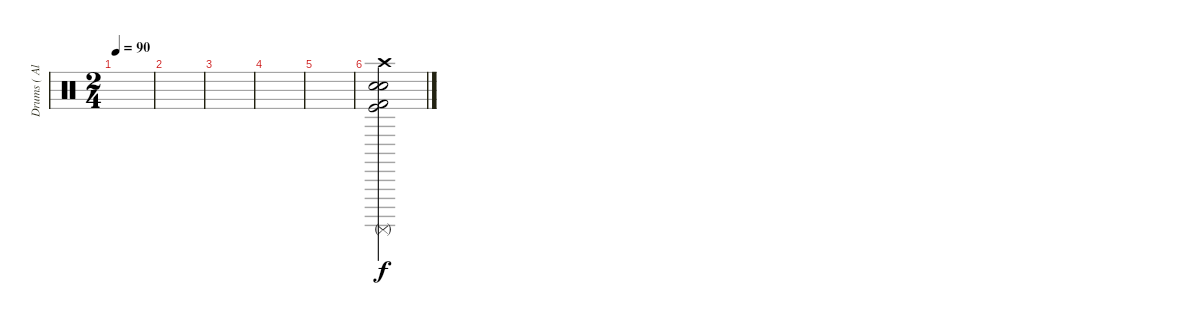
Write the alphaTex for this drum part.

\track ("Drums ( Alex Holzwarth)" "Drums ( Al") {instrument percussion}
\staff {score}
\articulation defaults
\ts (2 4)
\tempo 90
\clef neutral
\ks c
|
|
|
|
|
("Crash high (hit)" "Surdo (mute)" "Snare (hit) 2" "Snare (hit) 2" "Kick (hit) 2" "Kick (hit)").2
